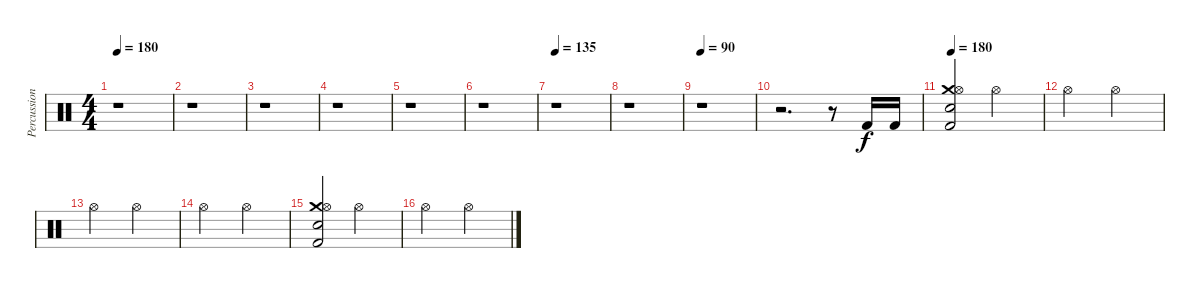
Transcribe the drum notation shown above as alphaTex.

\track ("Percussion" "Percussion") {instrument percussion}
\staff {score}
\articulation defaults
\ts (4 4)
\tempo 180
\clef neutral
\ks c
r.1{dy f} |
r.1 |
r.1 |
r.1 |
r.1 |
r.1 |
\tempo 135
r.1 |
r.1 |
\tempo 90
r.1 |
r.2{d} r.8 "Kick (hit) 2".16 "Kick (hit) 2".16 |
\tempo 180
("Crash medium (hit)" "Hi-Hat (open)" "Electric Snare (hit)" "Kick (hit) 2").2 "Hi-Hat (open)".2 |
"Hi-Hat (open)".2 "Hi-Hat (open)".2 |
"Hi-Hat (open)".2 "Hi-Hat (open)".2 |
"Hi-Hat (open)".2 "Hi-Hat (open)".2 |
("Crash medium (hit)" "Hi-Hat (open)" "Electric Snare (hit)" "Kick (hit) 2").2 "Hi-Hat (open)".2 |
"Hi-Hat (open)".2 "Hi-Hat (open)".2
